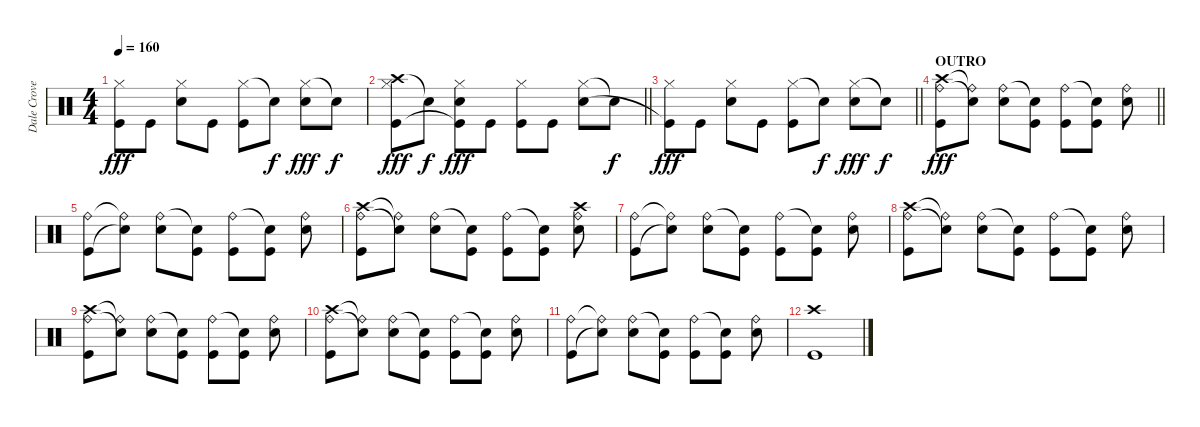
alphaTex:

\track ("Dale Crover" "Dale Crove") {instrument percussion}
\staff {score}
\articulation defaults
\ts (4 4)
\tempo 160
\clef neutral
\ks c
("Hi-Hat (closed)" "Kick (hit)"{t}).8{dy fff} "Kick (hit)".8 ("Hi-Hat (closed)" "Snare (hit) 2").8 "Kick (hit)".8 ("Hi-Hat (closed)" "Kick (hit)").8 "Snare (hit)"{t}.8{dy f} ("Hi-Hat (closed)" "Snare (hit) 2").8{dy fff} "Snare (hit)"{t}.8{dy f} |
\barLineRight lightlight
("Crash high (hit)" "Hi-Hat (closed)" "Kick (hit)").8{dy fff} "Snare (hit)"{t}.8{dy f} ("Hi-Hat (closed)" "Snare (hit) 2" "Kick (hit)"{t}).8{dy fff} "Kick (hit)".8 ("Hi-Hat (closed)" "Kick (hit)").8 "Kick (hit)".8 ("Hi-Hat (closed)" "Snare (hit) 2").8 "Snare (hit)"{t}.8{dy f} |
\barLineRight lightlight
("Hi-Hat (closed)" "Kick (hit)"{t}).8{dy fff} "Kick (hit)".8 ("Hi-Hat (closed)" "Snare (hit) 2").8 "Kick (hit)".8 ("Hi-Hat (closed)" "Kick (hit)").8 "Snare (hit)"{t}.8{dy f} ("Hi-Hat (closed)" "Snare (hit) 2").8{dy fff} "Snare (hit)"{t}.8{dy f} |
\section ("" "OUTRO")
\barLineRight lightlight
("Crash high (hit)" "Ride (bell)" "Kick (hit)").8{dy fff} ("Ride (bell)"{t} "Snare (hit)"{t}).8 ("Ride (bell)" "Snare (hit) 2").8 ("Snare (hit)"{t} "Kick (hit)").8 ("Ride (bell)" "Kick (hit)").8 ("Snare (hit)"{t} "Kick (hit)").8 ("Ride (bell)" "Snare (hit) 2").8 |
("Ride (bell)" "Kick (hit)").8 ("Ride (bell)"{t} "Snare (hit)"{t}).8 ("Ride (bell)" "Snare (hit) 2").8 ("Snare (hit)"{t} "Kick (hit)").8 ("Ride (bell)" "Kick (hit)").8 ("Snare (hit)"{t} "Kick (hit)").8 ("Ride (bell)" "Snare (hit) 2").8 |
("Crash high (hit)" "Ride (bell)" "Kick (hit)").8 ("Ride (bell)"{t} "Snare (hit)"{t}).8 ("Ride (bell)" "Snare (hit) 2").8 ("Snare (hit)"{t} "Kick (hit)").8 ("Ride (bell)" "Kick (hit)").8 ("Snare (hit)"{t} "Kick (hit)").8 ("Crash high (hit)" "Ride (bell)" "Snare (hit) 2").8 |
("Ride (bell)" "Kick (hit)").8 ("Ride (bell)"{t} "Snare (hit)"{t}).8 ("Ride (bell)" "Snare (hit) 2").8 ("Snare (hit)"{t} "Kick (hit)").8 ("Ride (bell)" "Kick (hit)").8 ("Snare (hit)"{t} "Kick (hit)").8 ("Ride (bell)" "Snare (hit) 2").8 |
("Crash high (hit)" "Ride (bell)" "Kick (hit)").8 ("Ride (bell)"{t} "Snare (hit)"{t}).8 ("Ride (bell)" "Snare (hit) 2").8 ("Snare (hit)"{t} "Kick (hit)").8 ("Ride (bell)" "Kick (hit)").8 ("Snare (hit)"{t} "Kick (hit)").8 ("Ride (bell)" "Snare (hit) 2").8 |
("Crash high (hit)" "Ride (bell)" "Kick (hit)").8 ("Ride (bell)"{t} "Snare (hit)"{t}).8 ("Ride (bell)" "Snare (hit) 2").8 ("Snare (hit)"{t} "Kick (hit)").8 ("Ride (bell)" "Kick (hit)").8 ("Snare (hit)"{t} "Kick (hit)").8 ("Ride (bell)" "Snare (hit) 2").8 |
("Crash high (hit)" "Ride (bell)" "Kick (hit)").8 ("Ride (bell)"{t} "Snare (hit)"{t}).8 ("Ride (bell)" "Snare (hit) 2").8 ("Snare (hit)"{t} "Kick (hit)").8 ("Ride (bell)" "Kick (hit)").8 ("Snare (hit)"{t} "Kick (hit)").8 ("Ride (bell)" "Snare (hit) 2").8 |
("Ride (bell)" "Kick (hit)").8 ("Ride (bell)"{t} "Snare (hit)"{t}).8 ("Ride (bell)" "Snare (hit) 2").8 ("Snare (hit)"{t} "Kick (hit)").8 ("Ride (bell)" "Kick (hit)").8 ("Snare (hit)"{t} "Kick (hit)").8 ("Ride (bell)" "Snare (hit) 2").8 |
("Crash high (hit)" "Kick (hit)").1
